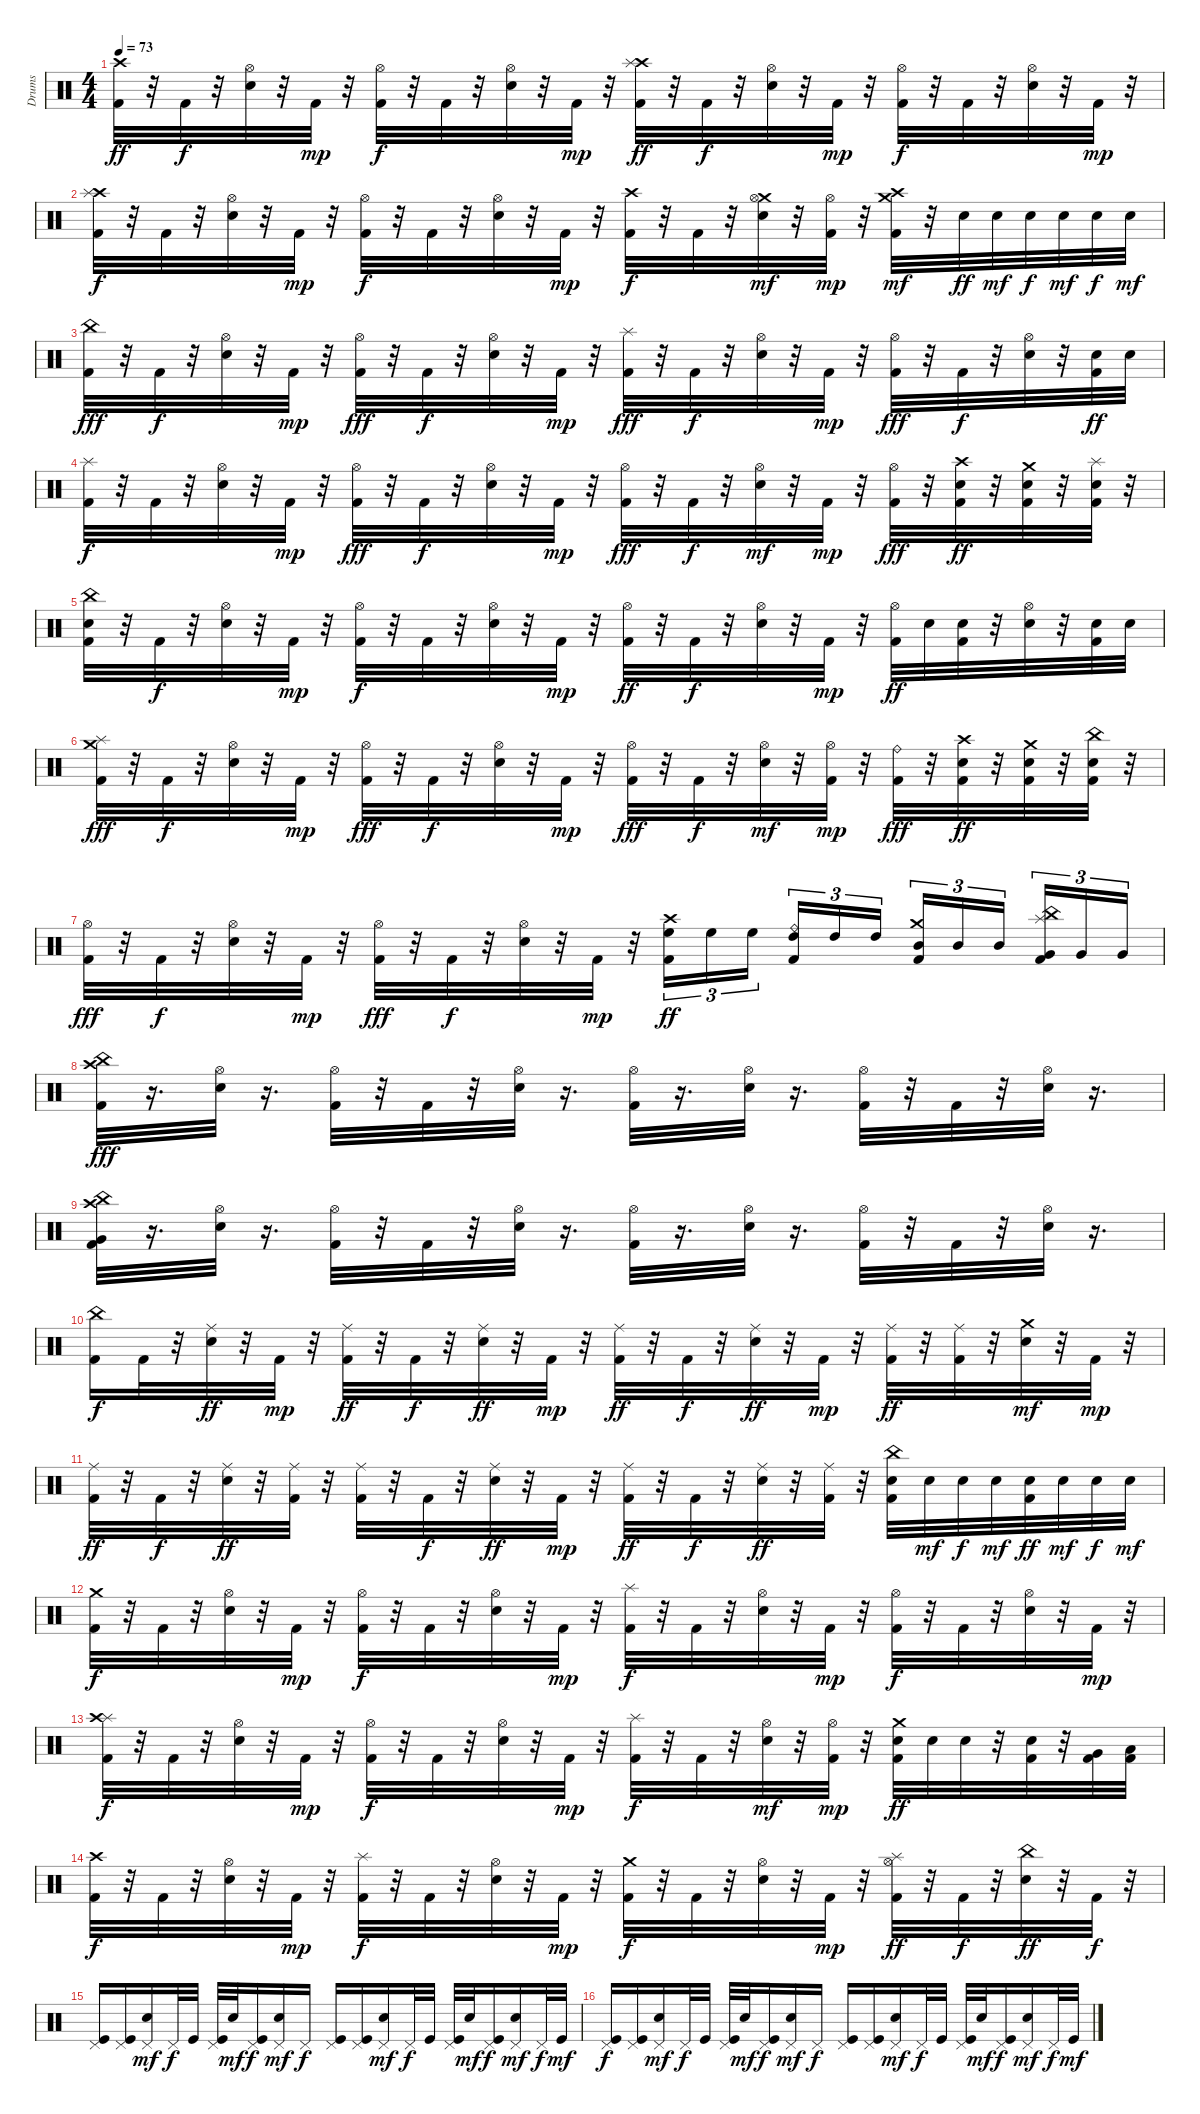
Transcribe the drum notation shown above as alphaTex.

\track ("Drums" "Drums") {instrument percussion}
\staff {score}
\articulation defaults
\ts (4 4)
\tempo 73
\clef neutral
\ks c
("Crash high (hit)" "Kick (hit) 2").32{dy ff} r.32 "Kick (hit) 2".32{dy f} r.32 ("Snare (hit) 2" "Hi-Hat (open)").32 r.32 "Kick (hit) 2".32{dy mp} r.32 ("Kick (hit) 2" "Hi-Hat (open)").32{dy f} r.32 "Kick (hit) 2".32 r.32 ("Snare (hit) 2" "Hi-Hat (open)").32 r.32 "Kick (hit) 2".32{dy mp} r.32 ("Crash high (hit)" "Splash (hit)" "Kick (hit) 2").32{dy ff} r.32 "Kick (hit) 2".32{dy f} r.32 ("Snare (hit) 2" "Hi-Hat (open)").32 r.32 "Kick (hit) 2".32{dy mp} r.32 ("Kick (hit) 2" "Hi-Hat (open)").32{dy f} r.32 "Kick (hit) 2".32 r.32 ("Snare (hit) 2" "Hi-Hat (open)").32 r.32 "Kick (hit) 2".32{dy mp} r.32 |
("Crash high (hit)" "Kick (hit) 2" "Splash (hit)").32{dy f} r.32 "Kick (hit) 2".32 r.32 ("Hi-Hat (open)" "Snare (hit) 2").32 r.32 "Kick (hit) 2".32{dy mp} r.32 ("Hi-Hat (open)" "Kick (hit) 2").32{dy f} r.32 "Kick (hit) 2".32 r.32 ("Hi-Hat (open)" "Snare (hit) 2").32 r.32 "Kick (hit) 2".32{dy mp} r.32 ("Crash high (hit)" "Kick (hit) 2").32{dy f} r.32 "Kick (hit) 2".32 r.32 ("Crash medium (hit)" "Hi-Hat (open)" "Snare (hit) 2").32{dy mf} r.32 ("Hi-Hat (open)" "Kick (hit) 2").32{dy mp} r.32 ("Crash high (hit)" "Crash medium (hit)" "Kick (hit) 2").32{dy mf} r.32 "Snare (hit) 2".32{dy ff} "Snare (hit) 2".32{dy mf} "Snare (hit) 2".32{dy f} "Snare (hit) 2".32{dy mf} "Snare (hit) 2".32{dy f} "Snare (hit) 2".32{dy mf} |
("China (hit)" "Kick (hit) 2").32{dy fff} r.32 "Kick (hit) 2".32{dy f} r.32 ("Snare (hit) 2" "Hi-Hat (open)").32 r.32 "Kick (hit) 2".32{dy mp} r.32 ("Kick (hit) 2" "Hi-Hat (open)").32{dy fff} r.32 "Kick (hit) 2".32{dy f} r.32 ("Snare (hit) 2" "Hi-Hat (open)").32 r.32 "Kick (hit) 2".32{dy mp} r.32 ("Splash (hit)" "Kick (hit) 2").32{dy fff} r.32 "Kick (hit) 2".32{dy f} r.32 ("Snare (hit) 2" "Hi-Hat (open)").32 r.32 "Kick (hit) 2".32{dy mp} r.32 ("Kick (hit) 2" "Hi-Hat (open)").32{dy fff} r.32 "Kick (hit) 2".32{dy f} r.32 ("Snare (hit) 2" "Hi-Hat (open)").32 r.32 ("Kick (hit) 2" "Snare (hit) 2").32{dy ff} "Snare (hit) 2".32 |
("Kick (hit) 2" "Splash (hit)").32{dy f} r.32 "Kick (hit) 2".32 r.32 ("Hi-Hat (open)" "Snare (hit) 2").32 r.32 "Kick (hit) 2".32{dy mp} r.32 ("Hi-Hat (open)" "Kick (hit) 2").32{dy fff} r.32 "Kick (hit) 2".32{dy f} r.32 ("Hi-Hat (open)" "Snare (hit) 2").32 r.32 "Kick (hit) 2".32{dy mp} r.32 ("Hi-Hat (open)" "Kick (hit) 2").32{dy fff} r.32 "Kick (hit) 2".32{dy f} r.32 ("Hi-Hat (open)" "Snare (hit) 2").32{dy mf} r.32 "Kick (hit) 2".32{dy mp} r.32 ("Kick (hit) 2" "Hi-Hat (open)").32{dy fff} r.32 ("Kick (hit) 2" "Snare (hit) 2" "Crash high (hit)").32{dy ff} r.32 ("Kick (hit) 2" "Snare (hit) 2" "Crash medium (hit)").32 r.32 ("Kick (hit) 2" "Snare (hit) 2" "Splash (hit)").32 r.32 |
("Kick (hit) 2" "Snare (hit) 2" "China (hit)").32 r.32 "Kick (hit) 2".32{dy f} r.32 ("Snare (hit) 2" "Hi-Hat (open)").32 r.32 "Kick (hit) 2".32{dy mp} r.32 ("Kick (hit) 2" "Hi-Hat (open)").32{dy f} r.32 "Kick (hit) 2".32 r.32 ("Snare (hit) 2" "Hi-Hat (open)").32 r.32 "Kick (hit) 2".32{dy mp} r.32 ("Kick (hit) 2" "Hi-Hat (open)").32{dy ff} r.32 "Kick (hit) 2".32{dy f} r.32 ("Snare (hit) 2" "Hi-Hat (open)").32 r.32 "Kick (hit) 2".32{dy mp} r.32 ("Kick (hit) 2" "Hi-Hat (open)").32{dy ff} "Snare (hit) 2".32 ("Kick (hit) 2" "Snare (hit) 2").32 r.32 ("Hi-Hat (open)" "Snare (hit) 2").32 r.32 ("Kick (hit) 2" "Snare (hit) 2").32 "Snare (hit) 2".32 |
("Crash medium (hit)" "Kick (hit) 2" "Splash (hit)").32{dy fff} r.32 "Kick (hit) 2".32{dy f} r.32 ("Hi-Hat (open)" "Snare (hit) 2").32 r.32 "Kick (hit) 2".32{dy mp} r.32 ("Hi-Hat (open)" "Kick (hit) 2").32{dy fff} r.32 "Kick (hit) 2".32{dy f} r.32 ("Hi-Hat (open)" "Snare (hit) 2").32 r.32 "Kick (hit) 2".32{dy mp} r.32 ("Hi-Hat (open)" "Kick (hit) 2").32{dy fff} r.32 "Kick (hit) 2".32{dy f} r.32 ("Hi-Hat (open)" "Snare (hit) 2").32{dy mf} r.32 ("Hi-Hat (open)" "Kick (hit) 2").32{dy mp} r.32 ("Ride (bell)" "Kick (hit) 2").32{dy fff} r.32 ("Snare (hit) 2" "Kick (hit) 2" "Crash high (hit)").32{dy ff} r.32 ("Snare (hit) 2" "Kick (hit) 2" "Crash medium (hit)").32 r.32 ("Snare (hit) 2" "Kick (hit) 2" "China (hit)").32 r.32 |
("Hi-Hat (open)" "Kick (hit) 2").32{dy fff} r.32 "Kick (hit) 2".32{dy f} r.32 ("Snare (hit) 2" "Hi-Hat (open)").32 r.32 "Kick (hit) 2".32{dy mp} r.32 ("Kick (hit) 2" "Hi-Hat (open)").32{dy fff} r.32 "Kick (hit) 2".32{dy f} r.32 ("Snare (hit) 2" "Hi-Hat (open)").32 r.32 "Kick (hit) 2".32{dy mp} r.32 ("Crash high (hit)" "Kick (hit) 2" "High Floor Tom (hit)").16{tu (3 2) dy ff} "High Floor Tom (hit)".16{tu (3 2)} "High Floor Tom (hit)".16{tu (3 2) beam splitsecondary} ("Ride (bell)" "Kick (hit) 2" "High Tom (hit)").16{tu (3 2)} "High Tom (hit)".16{tu (3 2)} "High Tom (hit)".16{tu (3 2)} ("Crash medium (hit)" "Kick (hit) 2" "Mid Tom (hit)").16{tu (3 2)} "Mid Tom (hit)".16{tu (3 2)} "Mid Tom (hit)".16{tu (3 2) beam splitsecondary} ("China (hit)" "Splash (hit)" "Kick (hit) 2" "Very Low Tom (hit)").16{tu (3 2)} "Very Low Tom (hit)".16{tu (3 2)} "Very Low Tom (hit)".16{tu (3 2)} |
("China (hit)" "Crash high (hit)" "Kick (hit) 2").32{dy fff} r.16{d} ("Hi-Hat (open)" "Snare (hit) 2").32 r.16{d} ("Hi-Hat (open)" "Kick (hit) 2").32 r.32 "Kick (hit) 2".32 r.32 ("Hi-Hat (open)" "Snare (hit) 2").32 r.16{d} ("Hi-Hat (open)" "Kick (hit) 2").32 r.16{d} ("Hi-Hat (open)" "Snare (hit) 2").32 r.16{d} ("Hi-Hat (open)" "Kick (hit) 2").32 r.32 "Kick (hit) 2".32 r.32 ("Hi-Hat (open)" "Snare (hit) 2").32 r.16{d} |
("Very Low Tom (hit)" "Kick (hit) 2" "Crash high (hit)" "China (hit)").32 r.16{d} ("Snare (hit) 2" "Hi-Hat (open)").32 r.16{d} ("Kick (hit) 2" "Hi-Hat (open)").32 r.32 "Kick (hit) 2".32 r.32 ("Snare (hit) 2" "Hi-Hat (open)").32 r.16{d} ("Kick (hit) 2" "Hi-Hat (open)").32 r.16{d} ("Snare (hit) 2" "Hi-Hat (open)").32 r.16{d} ("Kick (hit) 2" "Hi-Hat (open)").32 r.32 "Kick (hit) 2".32 r.32 ("Snare (hit) 2" "Hi-Hat (open)").32 r.16{d} |
("Kick (hit) 2" "China (hit)").16{dy f} "Kick (hit) 2".32 r.32 ("Snare (hit) 2" "Ride (middle)").32{dy ff} r.32 "Kick (hit) 2".32{dy mp} r.32 ("Kick (hit) 2" "Ride (middle)").32{dy ff} r.32 "Kick (hit) 2".32{dy f} r.32 ("Snare (hit) 2" "Ride (middle)").32{dy ff} r.32 "Kick (hit) 2".32{dy mp} r.32 ("Kick (hit) 2" "Ride (middle)").32{dy ff} r.32 "Kick (hit) 2".32{dy f} r.32 ("Snare (hit) 2" "Ride (middle)").32{dy ff} r.32 "Kick (hit) 2".32{dy mp} r.32 ("Kick (hit) 2" "Ride (middle)").32{dy ff} r.32 ("Kick (hit) 2" "Ride (middle)").32 r.32 ("Snare (hit) 2" "Crash medium (hit)").32{dy mf} r.32 "Kick (hit) 2".32{dy mp} r.32 |
("Kick (hit) 2" "Ride (middle)").32{dy ff} r.32 "Kick (hit) 2".32{dy f} r.32 ("Snare (hit) 2" "Ride (middle)").32{dy ff} r.32 ("Kick (hit) 2" "Ride (middle)").32 r.32 ("Kick (hit) 2" "Ride (middle)").32 r.32 "Kick (hit) 2".32{dy f} r.32 ("Snare (hit) 2" "Ride (middle)").32{dy ff} r.32 "Kick (hit) 2".32{dy mp} r.32 ("Kick (hit) 2" "Ride (middle)").32{dy ff} r.32 "Kick (hit) 2".32{dy f} r.32 ("Snare (hit) 2" "Ride (middle)").32{dy ff} r.32 ("Kick (hit) 2" "Ride (middle)").32 r.32 ("Snare (hit) 2" "Kick (hit) 2" "China (hit)").32 "Snare (hit) 2".32{dy mf} "Snare (hit) 2".32{dy f} "Snare (hit) 2".32{dy mf} ("Snare (hit) 2" "Kick (hit) 2").32{dy ff} "Snare (hit) 2".32{dy mf} "Snare (hit) 2".32{dy f} "Snare (hit) 2".32{dy mf} |
("Kick (hit) 2" "Crash medium (hit)").32{dy f} r.32 "Kick (hit) 2".32 r.32 ("Snare (hit) 2" "Hi-Hat (open)").32 r.32 "Kick (hit) 2".32{dy mp} r.32 ("Kick (hit) 2" "Hi-Hat (open)").32{dy f} r.32 "Kick (hit) 2".32 r.32 ("Snare (hit) 2" "Hi-Hat (open)").32 r.32 "Kick (hit) 2".32{dy mp} r.32 ("Kick (hit) 2" "Splash (hit)").32{dy f} r.32 "Kick (hit) 2".32 r.32 ("Snare (hit) 2" "Hi-Hat (open)").32 r.32 "Kick (hit) 2".32{dy mp} r.32 ("Kick (hit) 2" "Hi-Hat (open)").32{dy f} r.32 "Kick (hit) 2".32 r.32 ("Snare (hit) 2" "Hi-Hat (open)").32 r.32 "Kick (hit) 2".32{dy mp} r.32 |
("Kick (hit) 2" "Splash (hit)" "Crash high (hit)").32{dy f} r.32 "Kick (hit) 2".32 r.32 ("Hi-Hat (open)" "Snare (hit) 2").32 r.32 "Kick (hit) 2".32{dy mp} r.32 ("Hi-Hat (open)" "Kick (hit) 2").32{dy f} r.32 "Kick (hit) 2".32 r.32 ("Hi-Hat (open)" "Snare (hit) 2").32 r.32 "Kick (hit) 2".32{dy mp} r.32 ("Kick (hit) 2" "Splash (hit)").32{dy f} r.32 "Kick (hit) 2".32 r.32 ("Hi-Hat (open)" "Snare (hit) 2").32{dy mf} r.32 ("Hi-Hat (open)" "Kick (hit) 2").32{dy mp} r.32 ("Crash medium (hit)" "Kick (hit) 2" "Snare (hit) 2").32{dy ff} "Snare (hit) 2".32 "Snare (hit) 2".32 r.32 ("Snare (hit) 2" "Kick (hit) 2").32 r.32 ("Kick (hit) 2" "Very Low Tom (hit)").32 ("Kick (hit) 2" "Low Floor Tom (hit)").32 |
("Kick (hit) 2" "Crash high (hit)").32{dy f} r.32 "Kick (hit) 2".32 r.32 ("Hi-Hat (open)" "Snare (hit) 2").32 r.32 "Kick (hit) 2".32{dy mp} r.32 ("Kick (hit) 2" "Splash (hit)").32{dy f} r.32 "Kick (hit) 2".32 r.32 ("Hi-Hat (open)" "Snare (hit) 2").32 r.32 "Kick (hit) 2".32{dy mp} r.32 ("Kick (hit) 2" "Crash medium (hit)").32{dy f} r.32 "Kick (hit) 2".32 r.32 ("Hi-Hat (open)" "Snare (hit) 2").32 r.32 "Kick (hit) 2".32{dy mp} r.32 ("Hi-Hat (open)" "Kick (hit) 2" "Splash (hit)").32{dy ff} r.32 "Kick (hit) 2".32{dy f} r.32 ("China (hit)" "Snare (hit) 2").32{dy ff} r.32 "Kick (hit) 2".32{dy f} r.32 |
("Kick (hit)" "Pedal Hi-Hat (hit)").16 ("Pedal Hi-Hat (hit)" "Kick (hit)").16 ("Electric Snare (hit)" "Pedal Hi-Hat (hit)").16{dy mf} "Pedal Hi-Hat (hit)".32{dy f} "Kick (hit)".32 ("Kick (hit)" "Pedal Hi-Hat (hit)").32 "Electric Snare (hit)".32{dy mf} ("Pedal Hi-Hat (hit)" "Kick (hit)").16{dy f} ("Electric Snare (hit)" "Pedal Hi-Hat (hit)").16{dy mf} "Pedal Hi-Hat (hit)".16{dy f} ("Kick (hit)" "Pedal Hi-Hat (hit)").16 ("Kick (hit)" "Pedal Hi-Hat (hit)").16 ("Electric Snare (hit)" "Pedal Hi-Hat (hit)").16{dy mf} "Pedal Hi-Hat (hit)".32{dy f} "Kick (hit)".32 ("Kick (hit)" "Pedal Hi-Hat (hit)").32 "Electric Snare (hit)".32{dy mf} ("Kick (hit)" "Pedal Hi-Hat (hit)").16{dy f} ("Electric Snare (hit)" "Pedal Hi-Hat (hit)").16{dy mf} "Pedal Hi-Hat (hit)".32{dy f} "Kick (hit)".32{dy mf} |
("Pedal Hi-Hat (hit)" "Kick (hit)").16{dy f} ("Kick (hit)" "Pedal Hi-Hat (hit)").16 ("Pedal Hi-Hat (hit)" "Electric Snare (hit)").16{dy mf} "Pedal Hi-Hat (hit)".32{dy f} "Kick (hit)".32 ("Pedal Hi-Hat (hit)" "Kick (hit)").32 "Electric Snare (hit)".32{dy mf} ("Kick (hit)" "Pedal Hi-Hat (hit)").16{dy f} ("Pedal Hi-Hat (hit)" "Electric Snare (hit)").16{dy mf} "Pedal Hi-Hat (hit)".16{dy f} ("Pedal Hi-Hat (hit)" "Kick (hit)").16 ("Pedal Hi-Hat (hit)" "Kick (hit)").16 ("Pedal Hi-Hat (hit)" "Electric Snare (hit)").16{dy mf} "Pedal Hi-Hat (hit)".32{dy f} "Kick (hit)".32 ("Pedal Hi-Hat (hit)" "Kick (hit)").32 "Electric Snare (hit)".32{dy mf} ("Pedal Hi-Hat (hit)" "Kick (hit)").16{dy f} ("Pedal Hi-Hat (hit)" "Electric Snare (hit)").16{dy mf} "Pedal Hi-Hat (hit)".32{dy f} "Kick (hit)".32{dy mf}
